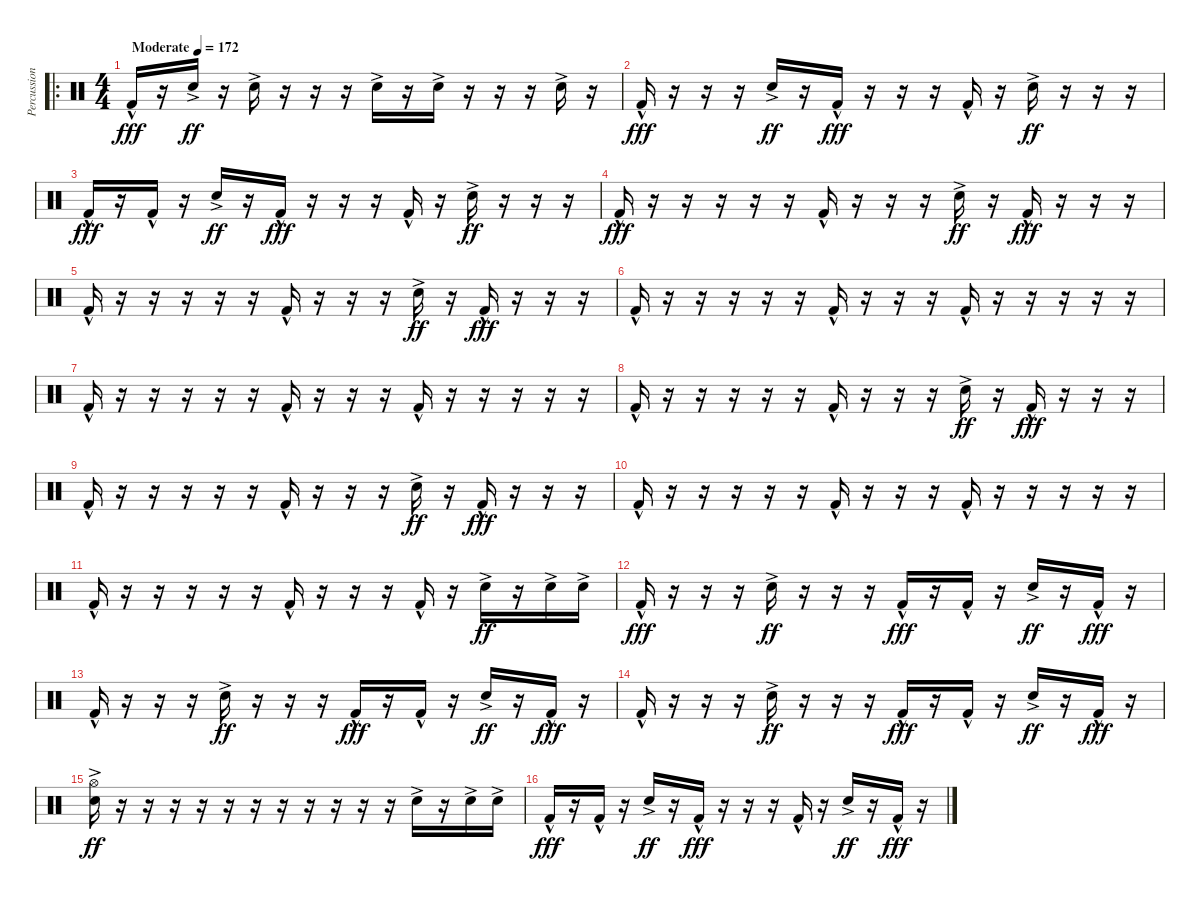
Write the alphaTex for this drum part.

\track ("Percussion" "Percussion") {instrument percussion bank 255}
\staff {score}
\articulation defaults
\ro
\ts (4 4)
\tempo (172 "Moderate")
\clef neutral
\ks c "Kick (hit) 2"{hac}.16{dy fff}
r.16 "Snare (hit) 2"{ac}.16{dy ff} r.16 "Snare (hit) 2"{ac}.16 r.16 r.16 r.16 "Snare (hit) 2"{ac}.16 r.16 "Snare (hit) 2"{ac}.16 r.16 r.16 r.16 "Snare (hit) 2"{ac}.16 r.16 |
"Kick (hit) 2"{hac}.16{dy fff} r.16 r.16 r.16 "Snare (hit) 2"{ac}.16{dy ff} r.16 "Kick (hit) 2"{hac}.16{dy fff} r.16 r.16 r.16 "Kick (hit) 2"{hac}.16 r.16 "Snare (hit) 2"{ac}.16{dy ff} r.16 r.16 r.16 |
"Kick (hit) 2"{hac}.16{dy fff} r.16 "Kick (hit) 2"{hac}.16 r.16 "Snare (hit) 2"{ac}.16{dy ff} r.16 "Kick (hit) 2"{hac}.16{dy fff} r.16 r.16 r.16 "Kick (hit) 2"{hac}.16 r.16 "Snare (hit) 2"{ac}.16{dy ff} r.16 r.16 r.16 |
"Kick (hit) 2"{hac}.16{dy fff} r.16 r.16 r.16 r.16 r.16 "Kick (hit) 2"{hac}.16 r.16 r.16 r.16 "Snare (hit) 2"{ac}.16{dy ff} r.16 "Kick (hit) 2"{hac}.16{dy fff} r.16 r.16 r.16 |
"Kick (hit) 2"{hac}.16 r.16 r.16 r.16 r.16 r.16 "Kick (hit) 2"{hac}.16 r.16 r.16 r.16 "Snare (hit) 2"{ac}.16{dy ff} r.16 "Kick (hit) 2"{hac}.16{dy fff} r.16 r.16 r.16 |
"Kick (hit) 2"{hac}.16 r.16 r.16 r.16 r.16 r.16 "Kick (hit) 2"{hac}.16 r.16 r.16 r.16 "Kick (hit) 2"{hac}.16 r.16 r.16 r.16 r.16 r.16 |
"Kick (hit) 2"{hac}.16 r.16 r.16 r.16 r.16 r.16 "Kick (hit) 2"{hac}.16 r.16 r.16 r.16 "Kick (hit) 2"{hac}.16 r.16 r.16 r.16 r.16 r.16 |
"Kick (hit) 2"{hac}.16 r.16 r.16 r.16 r.16 r.16 "Kick (hit) 2"{hac}.16 r.16 r.16 r.16 "Snare (hit) 2"{ac}.16{dy ff} r.16 "Kick (hit) 2"{hac}.16{dy fff} r.16 r.16 r.16 |
"Kick (hit) 2"{hac}.16 r.16 r.16 r.16 r.16 r.16 "Kick (hit) 2"{hac}.16 r.16 r.16 r.16 "Snare (hit) 2"{ac}.16{dy ff} r.16 "Kick (hit) 2"{hac}.16{dy fff} r.16 r.16 r.16 |
"Kick (hit) 2"{hac}.16 r.16 r.16 r.16 r.16 r.16 "Kick (hit) 2"{hac}.16 r.16 r.16 r.16 "Kick (hit) 2"{hac}.16 r.16 r.16 r.16 r.16 r.16 |
"Kick (hit) 2"{hac}.16 r.16 r.16 r.16 r.16 r.16 "Kick (hit) 2"{hac}.16 r.16 r.16 r.16 "Kick (hit) 2"{hac}.16 r.16 "Snare (hit) 2"{ac}.16{dy ff} r.16 "Snare (hit) 2"{ac}.16 "Snare (hit) 2"{ac}.16 |
"Kick (hit) 2"{hac}.16{dy fff} r.16 r.16 r.16 "Snare (hit) 2"{ac}.16{dy ff} r.16 r.16 r.16 "Kick (hit) 2"{hac}.16{dy fff} r.16 "Kick (hit) 2"{hac}.16 r.16 "Snare (hit) 2"{ac}.16{dy ff} r.16 "Kick (hit) 2"{hac}.16{dy fff} r.16 |
"Kick (hit) 2"{hac}.16 r.16 r.16 r.16 "Snare (hit) 2"{ac}.16{dy ff} r.16 r.16 r.16 "Kick (hit) 2"{hac}.16{dy fff} r.16 "Kick (hit) 2"{hac}.16 r.16 "Snare (hit) 2"{ac}.16{dy ff} r.16 "Kick (hit) 2"{hac}.16{dy fff} r.16 |
"Kick (hit) 2"{hac}.16 r.16 r.16 r.16 "Snare (hit) 2"{ac}.16{dy ff} r.16 r.16 r.16 "Kick (hit) 2"{hac}.16{dy fff} r.16 "Kick (hit) 2"{hac}.16 r.16 "Snare (hit) 2"{ac}.16{dy ff} r.16 "Kick (hit) 2"{hac}.16{dy fff} r.16 |
("Hi-Hat (open)"{ac} "Snare (hit) 2"{ac}).16{dy ff} r.16 r.16 r.16 r.16 r.16 r.16 r.16 r.16 r.16 r.16 r.16 "Snare (hit) 2"{ac}.16 r.16 "Snare (hit) 2"{ac}.16 "Snare (hit) 2"{ac}.16 |
"Kick (hit) 2"{hac}.16{dy fff} r.16 "Kick (hit) 2"{hac}.16 r.16 "Snare (hit) 2"{ac}.16{dy ff} r.16 "Kick (hit) 2"{hac}.16{dy fff} r.16 r.16 r.16 "Kick (hit) 2"{hac}.16 r.16 "Snare (hit) 2"{ac}.16{dy ff} r.16 "Kick (hit) 2"{hac}.16{dy fff} r.16
